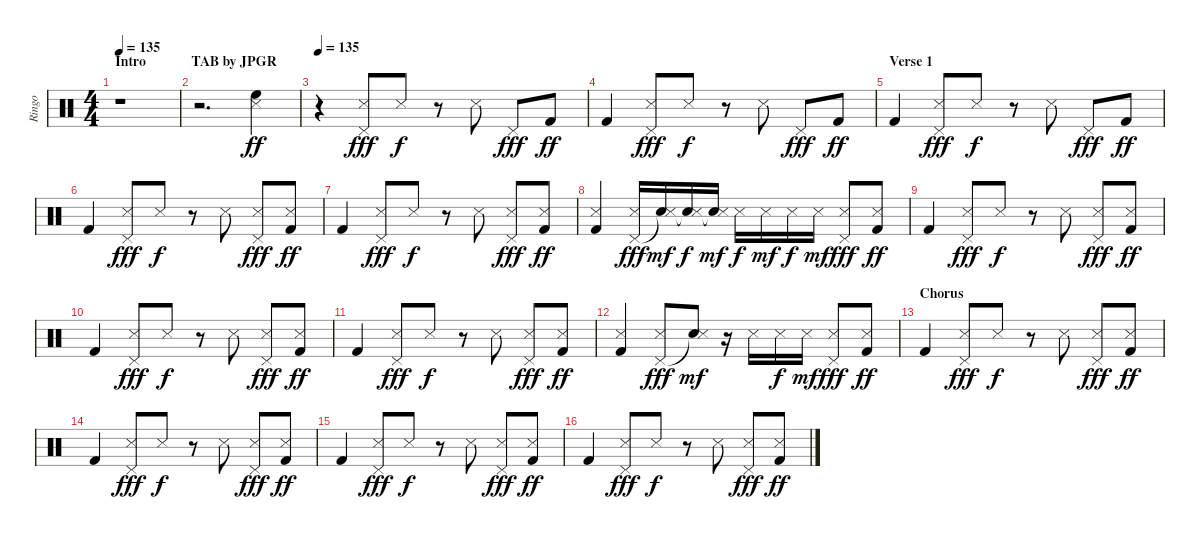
\track ("Ringo" "Ringo") {instrument percussion}
\staff {score}
\articulation defaults
\ts (4 4)
\section ("" "Intro             TAB by JPGR")
\tempo 135
\tempo 105
\tempo 135
\clef neutral
\ks c
r.1{dy ff} |
r.2{d} ("High Floor Tom (hit)" "Snare (side stick) 3").4{volume 16} |
\tempo 135
r.4 ("Pedal Hi-Hat (hit)" "Snare (side stick) 3").8{dy fff} "Snare (side stick) 3".8{dy f} r.8 "Snare (side stick) 3".8 "Pedal Hi-Hat (hit)".8{dy fff} "Kick (hit) 2".8{dy ff} |
"Kick (hit) 2".4 ("Pedal Hi-Hat (hit)" "Snare (side stick) 3").8{dy fff} "Snare (side stick) 3".8{dy f} r.8 "Snare (side stick) 3".8 "Pedal Hi-Hat (hit)".8{dy fff} "Kick (hit) 2".8{dy ff} |
\section ("" "Verse 1")
"Kick (hit) 2".4 ("Pedal Hi-Hat (hit)" "Snare (side stick) 3").8{dy fff} "Snare (side stick) 3".8{dy f} r.8 "Snare (side stick) 3".8 "Pedal Hi-Hat (hit)".8{dy fff} "Kick (hit) 2".8{dy ff} |
"Kick (hit) 2".4 ("Pedal Hi-Hat (hit)" "Snare (side stick) 3").8{dy fff} "Snare (side stick) 3".8{dy f} r.8 "Snare (side stick) 3".8 ("Pedal Hi-Hat (hit)" "Snare (side stick) 3").8{dy fff} ("Snare (side stick) 3" "Kick (hit) 2").8{dy ff} |
"Kick (hit) 2".4 ("Pedal Hi-Hat (hit)" "Snare (side stick) 3").8{dy fff} "Snare (side stick) 3".8{dy f} r.8 "Snare (side stick) 3".8 ("Pedal Hi-Hat (hit)" "Snare (side stick) 3").8{dy fff} ("Snare (side stick) 3" "Kick (hit) 2").8{dy ff} |
("Snare (side stick) 3" "Kick (hit) 2").4 ("Pedal Hi-Hat (hit)" "Snare (side stick) 3").16{dy fff} ("Snare (hit)"{t} "Snare (side stick) 3").16{dy mf} ("Snare (hit)"{t} "Snare (side stick) 3").16{dy f} ("Snare (hit)"{t} "Snare (side stick) 3").16{dy mf} "Snare (side stick) 3".16{dy f} "Snare (side stick) 3".16{dy mf} "Snare (side stick) 3".16{dy f} "Snare (side stick) 3".16{dy mf} ("Pedal Hi-Hat (hit)" "Snare (side stick) 3").8{dy fff} ("Snare (side stick) 3" "Kick (hit) 2").8{dy ff} |
"Kick (hit) 2".4 ("Pedal Hi-Hat (hit)" "Snare (side stick) 3").8{dy fff} "Snare (side stick) 3".8{dy f} r.8 "Snare (side stick) 3".8 ("Pedal Hi-Hat (hit)" "Snare (side stick) 3").8{dy fff} ("Snare (side stick) 3" "Kick (hit) 2").8{dy ff} |
"Kick (hit) 2".4 ("Pedal Hi-Hat (hit)" "Snare (side stick) 3").8{dy fff} "Snare (side stick) 3".8{dy f} r.8 "Snare (side stick) 3".8 ("Pedal Hi-Hat (hit)" "Snare (side stick) 3").8{dy fff} ("Snare (side stick) 3" "Kick (hit) 2").8{dy ff} |
"Kick (hit) 2".4 ("Pedal Hi-Hat (hit)" "Snare (side stick) 3").8{dy fff} "Snare (side stick) 3".8{dy f} r.8 "Snare (side stick) 3".8 ("Pedal Hi-Hat (hit)" "Snare (side stick) 3").8{dy fff} ("Snare (side stick) 3" "Kick (hit) 2").8{dy ff} |
("Snare (side stick) 3" "Kick (hit) 2").4 ("Pedal Hi-Hat (hit)" "Snare (side stick) 3").8{dy fff} ("Snare (hit)"{t} "Snare (side stick) 3").8{dy mf} r.16 "Snare (side stick) 3".16 "Snare (side stick) 3".16{dy f} "Snare (side stick) 3".16{dy mf} ("Pedal Hi-Hat (hit)" "Snare (side stick) 3").8{dy fff} ("Snare (side stick) 3" "Kick (hit) 2").8{dy ff} |
\section ("" "Chorus")
"Kick (hit) 2".4 ("Pedal Hi-Hat (hit)" "Snare (side stick) 3").8{dy fff} "Snare (side stick) 3".8{dy f} r.8 "Snare (side stick) 3".8 ("Pedal Hi-Hat (hit)" "Snare (side stick) 3").8{dy fff} ("Snare (side stick) 3" "Kick (hit) 2").8{dy ff} |
"Kick (hit) 2".4 ("Pedal Hi-Hat (hit)" "Snare (side stick) 3").8{dy fff} "Snare (side stick) 3".8{dy f} r.8 "Snare (side stick) 3".8 ("Pedal Hi-Hat (hit)" "Snare (side stick) 3").8{dy fff} ("Snare (side stick) 3" "Kick (hit) 2").8{dy ff} |
"Kick (hit) 2".4 ("Pedal Hi-Hat (hit)" "Snare (side stick) 3").8{dy fff} "Snare (side stick) 3".8{dy f} r.8 "Snare (side stick) 3".8 ("Pedal Hi-Hat (hit)" "Snare (side stick) 3").8{dy fff} ("Snare (side stick) 3" "Kick (hit) 2").8{dy ff} |
"Kick (hit) 2".4 ("Pedal Hi-Hat (hit)" "Snare (side stick) 3").8{dy fff} "Snare (side stick) 3".8{dy f} r.8 "Snare (side stick) 3".8 ("Pedal Hi-Hat (hit)" "Snare (side stick) 3").8{dy fff} ("Snare (side stick) 3" "Kick (hit) 2").8{dy ff}
